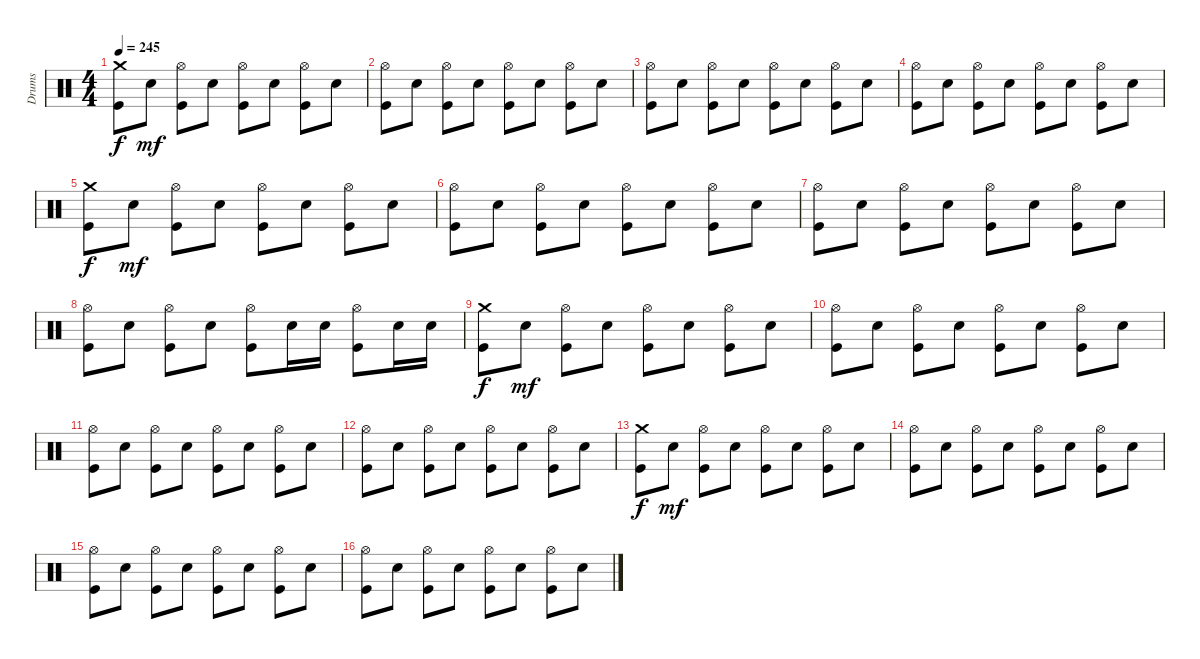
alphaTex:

\track ("Drums" "Drums") {instrument percussion}
\staff {score}
\articulation defaults
\ts (4 4)
\tempo 245
\clef neutral
\ks c
("Crash medium (hit)" "Kick (hit)").8{dy f} "Snare (hit) 2".8{dy mf} ("Hi-Hat (open)" "Kick (hit)").8 "Snare (hit) 2".8 ("Hi-Hat (open)" "Kick (hit)").8 "Snare (hit) 2".8 ("Hi-Hat (open)" "Kick (hit)").8 "Snare (hit) 2".8 |
("Hi-Hat (open)" "Kick (hit)").8 "Snare (hit) 2".8 ("Hi-Hat (open)" "Kick (hit)").8 "Snare (hit) 2".8 ("Hi-Hat (open)" "Kick (hit)").8 "Snare (hit) 2".8 ("Hi-Hat (open)" "Kick (hit)").8 "Snare (hit) 2".8 |
("Hi-Hat (open)" "Kick (hit)").8 "Snare (hit) 2".8 ("Hi-Hat (open)" "Kick (hit)").8 "Snare (hit) 2".8 ("Hi-Hat (open)" "Kick (hit)").8 "Snare (hit) 2".8 ("Hi-Hat (open)" "Kick (hit)").8 "Snare (hit) 2".8 |
("Hi-Hat (open)" "Kick (hit)").8 "Snare (hit) 2".8 ("Hi-Hat (open)" "Kick (hit)").8 "Snare (hit) 2".8 ("Hi-Hat (open)" "Kick (hit)").8 "Snare (hit) 2".8 ("Hi-Hat (open)" "Kick (hit)").8 "Snare (hit) 2".8 |
("Crash medium (hit)" "Kick (hit)").8{dy f} "Snare (hit) 2".8{dy mf} ("Hi-Hat (open)" "Kick (hit)").8 "Snare (hit) 2".8 ("Hi-Hat (open)" "Kick (hit)").8 "Snare (hit) 2".8 ("Hi-Hat (open)" "Kick (hit)").8 "Snare (hit) 2".8 |
("Hi-Hat (open)" "Kick (hit)").8 "Snare (hit) 2".8 ("Hi-Hat (open)" "Kick (hit)").8 "Snare (hit) 2".8 ("Hi-Hat (open)" "Kick (hit)").8 "Snare (hit) 2".8 ("Hi-Hat (open)" "Kick (hit)").8 "Snare (hit) 2".8 |
("Hi-Hat (open)" "Kick (hit)").8 "Snare (hit) 2".8 ("Hi-Hat (open)" "Kick (hit)").8 "Snare (hit) 2".8 ("Hi-Hat (open)" "Kick (hit)").8 "Snare (hit) 2".8 ("Hi-Hat (open)" "Kick (hit)").8 "Snare (hit) 2".8 |
("Hi-Hat (open)" "Kick (hit)").8 "Snare (hit) 2".8 ("Hi-Hat (open)" "Kick (hit)").8 "Snare (hit) 2".8 ("Hi-Hat (open)" "Kick (hit)").8 "Snare (hit) 2".16 "Snare (hit) 2".16 ("Hi-Hat (open)" "Kick (hit)").8 "Snare (hit) 2".16 "Snare (hit) 2".16 |
("Crash medium (hit)" "Kick (hit)").8{dy f} "Snare (hit) 2".8{dy mf} ("Hi-Hat (open)" "Kick (hit)").8 "Snare (hit) 2".8 ("Hi-Hat (open)" "Kick (hit)").8 "Snare (hit) 2".8 ("Hi-Hat (open)" "Kick (hit)").8 "Snare (hit) 2".8 |
("Hi-Hat (open)" "Kick (hit)").8 "Snare (hit) 2".8 ("Hi-Hat (open)" "Kick (hit)").8 "Snare (hit) 2".8 ("Hi-Hat (open)" "Kick (hit)").8 "Snare (hit) 2".8 ("Hi-Hat (open)" "Kick (hit)").8 "Snare (hit) 2".8 |
("Hi-Hat (open)" "Kick (hit)").8 "Snare (hit) 2".8 ("Hi-Hat (open)" "Kick (hit)").8 "Snare (hit) 2".8 ("Hi-Hat (open)" "Kick (hit)").8 "Snare (hit) 2".8 ("Hi-Hat (open)" "Kick (hit)").8 "Snare (hit) 2".8 |
("Hi-Hat (open)" "Kick (hit)").8 "Snare (hit) 2".8 ("Hi-Hat (open)" "Kick (hit)").8 "Snare (hit) 2".8 ("Hi-Hat (open)" "Kick (hit)").8 "Snare (hit) 2".8 ("Hi-Hat (open)" "Kick (hit)").8 "Snare (hit) 2".8 |
("Crash medium (hit)" "Kick (hit)").8{dy f} "Snare (hit) 2".8{dy mf} ("Hi-Hat (open)" "Kick (hit)").8 "Snare (hit) 2".8 ("Hi-Hat (open)" "Kick (hit)").8 "Snare (hit) 2".8 ("Hi-Hat (open)" "Kick (hit)").8 "Snare (hit) 2".8 |
("Hi-Hat (open)" "Kick (hit)").8 "Snare (hit) 2".8 ("Hi-Hat (open)" "Kick (hit)").8 "Snare (hit) 2".8 ("Hi-Hat (open)" "Kick (hit)").8 "Snare (hit) 2".8 ("Hi-Hat (open)" "Kick (hit)").8 "Snare (hit) 2".8 |
("Hi-Hat (open)" "Kick (hit)").8 "Snare (hit) 2".8 ("Hi-Hat (open)" "Kick (hit)").8 "Snare (hit) 2".8 ("Hi-Hat (open)" "Kick (hit)").8 "Snare (hit) 2".8 ("Hi-Hat (open)" "Kick (hit)").8 "Snare (hit) 2".8 |
("Hi-Hat (open)" "Kick (hit)").8 "Snare (hit) 2".8 ("Hi-Hat (open)" "Kick (hit)").8 "Snare (hit) 2".8 ("Hi-Hat (open)" "Kick (hit)").8 "Snare (hit) 2".8 ("Hi-Hat (open)" "Kick (hit)").8 "Snare (hit) 2".8
